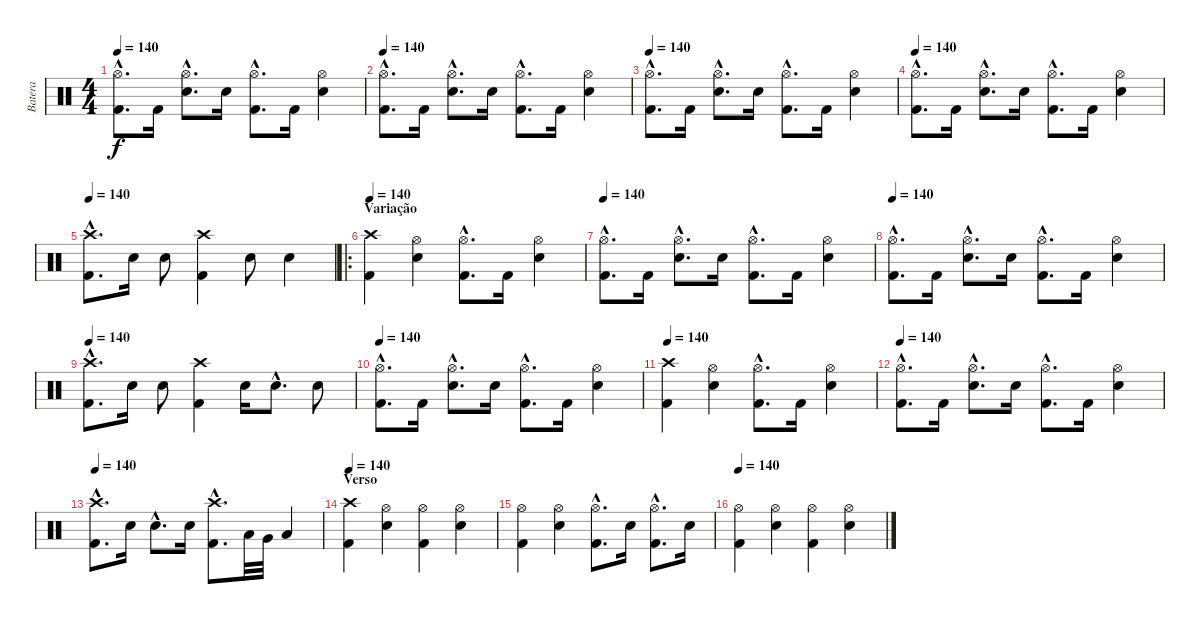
\track ("Batera" "Batera") {instrument percussion}
\staff {score}
\articulation defaults
\ts (4 4)
\tempo 140
\clef neutral
\ks c
("Hi-Hat (open)"{hac} "Kick (hit) 2"{hac}).8{d dy f} "Kick (hit) 2".16 ("Hi-Hat (open)"{hac} "Snare (hit) 2"{hac}).8{d} "Snare (hit) 2".16 ("Hi-Hat (open)"{hac} "Kick (hit) 2"{hac}).8{d} "Kick (hit) 2".16 ("Hi-Hat (open)" "Snare (hit) 2").4 |
\tempo 140
("Hi-Hat (open)"{hac} "Kick (hit) 2"{hac}).8{d} "Kick (hit) 2".16 ("Hi-Hat (open)"{hac} "Snare (hit) 2"{hac}).8{d} "Snare (hit) 2".16 ("Hi-Hat (open)"{hac} "Kick (hit) 2"{hac}).8{d} "Kick (hit) 2".16 ("Hi-Hat (open)" "Snare (hit) 2").4 |
\tempo 140
("Hi-Hat (open)"{hac} "Kick (hit) 2"{hac}).8{d} "Kick (hit) 2".16 ("Hi-Hat (open)"{hac} "Snare (hit) 2"{hac}).8{d} "Snare (hit) 2".16 ("Hi-Hat (open)"{hac} "Kick (hit) 2"{hac}).8{d} "Kick (hit) 2".16 ("Hi-Hat (open)" "Snare (hit) 2").4 |
\tempo 140
("Hi-Hat (open)"{hac} "Kick (hit) 2"{hac}).8{d} "Kick (hit) 2".16 ("Hi-Hat (open)"{hac} "Snare (hit) 2"{hac}).8{d} "Snare (hit) 2".16 ("Hi-Hat (open)"{hac} "Kick (hit) 2"{hac}).8{d} "Kick (hit) 2".16 ("Hi-Hat (open)" "Snare (hit) 2").4 |
\tempo 140
("Crash high (hit)"{hac} "Kick (hit) 2"{hac}).8{d} "Snare (hit) 2".16 "Snare (hit) 2".8 ("Crash high (hit)" "Kick (hit) 2").4 "Snare (hit) 2".8 "Snare (hit) 2".4 |
\ro
\section ("" "Variação")
\tempo 140
("Crash high (hit)" "Kick (hit) 2").4 ("Hi-Hat (open)" "Snare (hit) 2").4 ("Hi-Hat (open)"{hac} "Kick (hit) 2"{hac}).8{d} "Kick (hit) 2".16 ("Hi-Hat (open)" "Snare (hit) 2").4 |
\tempo 140
("Hi-Hat (open)"{hac} "Kick (hit) 2"{hac}).8{d} "Kick (hit) 2".16 ("Hi-Hat (open)"{hac} "Snare (hit) 2"{hac}).8{d} "Snare (hit) 2".16 ("Hi-Hat (open)"{hac} "Kick (hit) 2"{hac}).8{d} "Kick (hit) 2".16 ("Hi-Hat (open)" "Snare (hit) 2").4 |
\tempo 140
("Hi-Hat (open)"{hac} "Kick (hit) 2"{hac}).8{d} "Kick (hit) 2".16 ("Hi-Hat (open)"{hac} "Snare (hit) 2"{hac}).8{d} "Snare (hit) 2".16 ("Hi-Hat (open)"{hac} "Kick (hit) 2"{hac}).8{d} "Kick (hit) 2".16 ("Hi-Hat (open)" "Snare (hit) 2").4 |
\tempo 140
("Crash high (hit)"{hac} "Kick (hit) 2"{hac}).8{d} "Snare (hit) 2".16 "Snare (hit) 2".8 ("Crash high (hit)" "Kick (hit) 2").4 "Snare (hit) 2".16 "Snare (hit) 2"{hac}.8{d} "Snare (hit) 2".8 |
\tempo 140
("Hi-Hat (open)"{hac} "Kick (hit) 2"{hac}).8{d} "Kick (hit) 2".16 ("Hi-Hat (open)"{hac} "Snare (hit) 2"{hac}).8{d} "Snare (hit) 2".16 ("Hi-Hat (open)"{hac} "Kick (hit) 2"{hac}).8{d} "Kick (hit) 2".16 ("Hi-Hat (open)" "Snare (hit) 2").4 |
\tempo 140
("Crash high (hit)" "Kick (hit) 2").4 ("Hi-Hat (open)" "Snare (hit) 2").4 ("Hi-Hat (open)"{hac} "Kick (hit) 2"{hac}).8{d} "Kick (hit) 2".16 ("Hi-Hat (open)" "Snare (hit) 2").4 |
\tempo 140
("Hi-Hat (open)"{hac} "Kick (hit) 2"{hac}).8{d} "Kick (hit) 2".16 ("Hi-Hat (open)"{hac} "Snare (hit) 2"{hac}).8{d} "Snare (hit) 2".16 ("Hi-Hat (open)"{hac} "Kick (hit) 2"{hac}).8{d} "Kick (hit) 2".16 ("Hi-Hat (open)" "Snare (hit) 2").4 |
\tempo 140
("Crash high (hit)"{hac} "Kick (hit) 2"{hac}).8{d} "Snare (hit) 2".16 "Snare (hit) 2"{hac}.8{d} "Snare (hit) 2".16 ("Crash high (hit)"{hac} "Kick (hit) 2"{hac}).8{d} "Low Tom (hit)".32 "Very Low Tom (hit)".32 "Low Floor Tom (hit)".4 |
\section ("" "Verso")
\tempo 140
("Crash high (hit)" "Kick (hit) 2").4 ("Hi-Hat (open)" "Snare (hit) 2").4 ("Hi-Hat (open)" "Kick (hit) 2").4 ("Hi-Hat (open)" "Snare (hit) 2").4 |
("Hi-Hat (open)" "Kick (hit) 2").4 ("Hi-Hat (open)" "Snare (hit) 2").4 ("Hi-Hat (open)"{hac} "Kick (hit) 2"{hac}).8{d} "Snare (hit) 2".16 ("Hi-Hat (open)"{hac} "Kick (hit) 2"{hac}).8{d} "Snare (hit) 2".16 |
\tempo 140
("Hi-Hat (open)" "Kick (hit) 2").4 ("Hi-Hat (open)" "Snare (hit) 2").4 ("Hi-Hat (open)" "Kick (hit) 2").4 ("Hi-Hat (open)" "Snare (hit) 2").4
